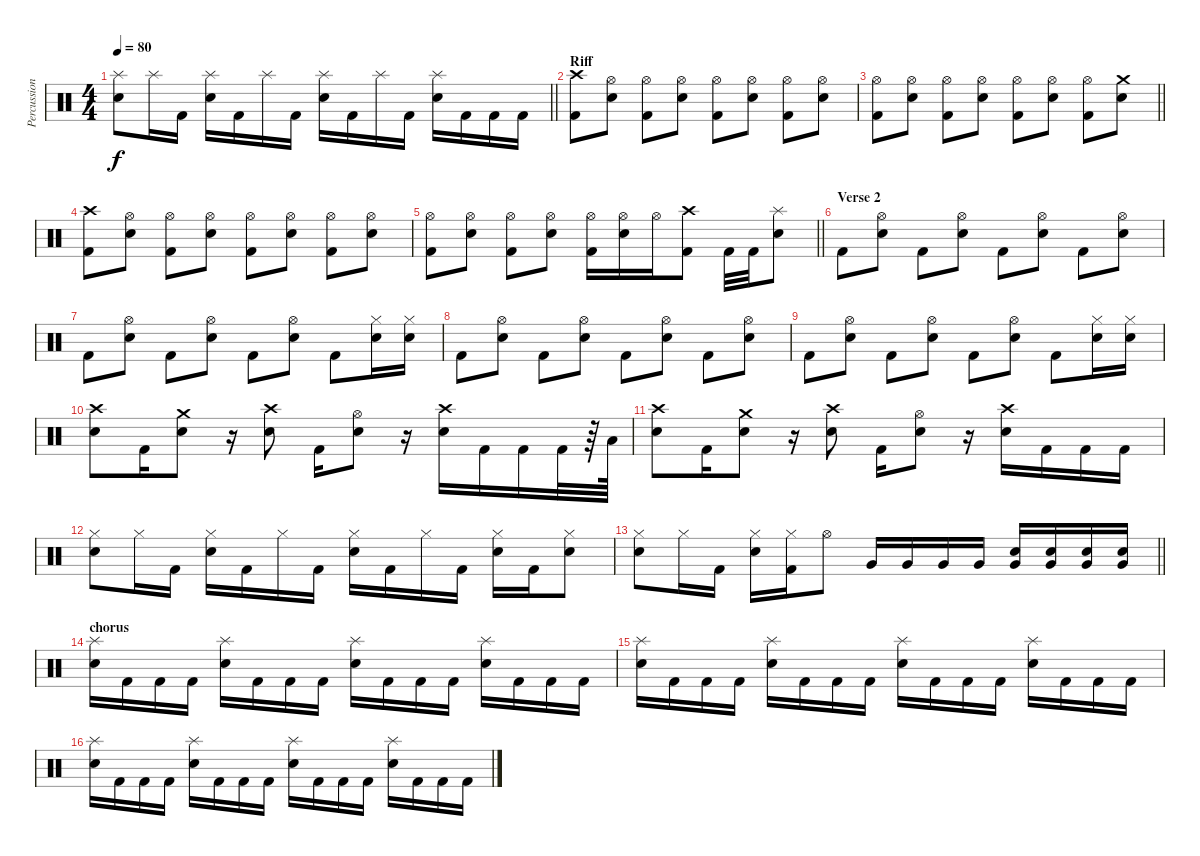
\track ("Percussion" "Percussion") {instrument percussion}
\staff {score}
\articulation defaults
\ts (4 4)
\tempo 80
\clef neutral
\barLineRight lightlight
\ks c
("Splash (hit)" "Snare (hit) 2").8{dy f} "Splash (hit)".16 "Kick (hit) 2".16 ("Splash (hit)" "Snare (hit) 2").16 "Kick (hit) 2".16 "Splash (hit)".16 "Kick (hit) 2".16 ("Splash (hit)" "Snare (hit) 2").16 "Kick (hit) 2".16 "Splash (hit)".16 "Kick (hit) 2".16 ("Splash (hit)" "Snare (hit) 2").16 "Kick (hit) 2".16 "Kick (hit) 2".16 "Kick (hit) 2".16 |
\section ("" "Riff")
("Crash high (hit)" "Kick (hit) 2").8 ("Hi-Hat (open)" "Snare (hit) 2").8 ("Hi-Hat (open)" "Kick (hit) 2").8 ("Hi-Hat (open)" "Snare (hit) 2").8 ("Hi-Hat (open)" "Kick (hit) 2").8 ("Hi-Hat (open)" "Snare (hit) 2").8 ("Hi-Hat (open)" "Kick (hit) 2").8 ("Hi-Hat (open)" "Snare (hit) 2").8 |
\barLineRight lightlight
("Hi-Hat (open)" "Kick (hit) 2").8 ("Hi-Hat (open)" "Snare (hit) 2").8 ("Hi-Hat (open)" "Kick (hit) 2").8 ("Hi-Hat (open)" "Snare (hit) 2").8 ("Hi-Hat (open)" "Kick (hit) 2").8 ("Hi-Hat (open)" "Snare (hit) 2").8 ("Hi-Hat (open)" "Kick (hit) 2").8 ("Crash medium (hit)" "Snare (hit) 2").8 |
\section ("" "")
("Crash high (hit)" "Kick (hit) 2").8 ("Hi-Hat (open)" "Snare (hit) 2").8 ("Hi-Hat (open)" "Kick (hit) 2").8 ("Hi-Hat (open)" "Snare (hit) 2").8 ("Hi-Hat (open)" "Kick (hit) 2").8 ("Hi-Hat (open)" "Snare (hit) 2").8 ("Hi-Hat (open)" "Kick (hit) 2").8 ("Hi-Hat (open)" "Snare (hit) 2").8 |
\barLineRight lightlight
("Hi-Hat (open)" "Kick (hit) 2").8 ("Hi-Hat (open)" "Snare (hit) 2").8 ("Hi-Hat (open)" "Kick (hit) 2").8 ("Hi-Hat (open)" "Snare (hit) 2").8 ("Hi-Hat (open)" "Kick (hit) 2").16 ("Hi-Hat (open)" "Snare (hit) 2").16 "Hi-Hat (open)".16 ("Crash high (hit)" "Kick (hit) 2").8 "Kick (hit) 2".32 "Kick (hit) 2".32 ("Splash (hit)" "Snare (hit) 2").8 |
\section ("" "Verse 2")
"Kick (hit) 2".8 ("Hi-Hat (open)" "Snare (hit) 2").8 "Kick (hit) 2".8 ("Hi-Hat (open)" "Snare (hit) 2").8 "Kick (hit) 2".8 ("Hi-Hat (open)" "Snare (hit) 2").8 "Kick (hit) 2".8 ("Hi-Hat (open)" "Snare (hit) 2").8 |
"Kick (hit) 2".8 ("Hi-Hat (open)" "Snare (hit) 2").8 "Kick (hit) 2".8 ("Hi-Hat (open)" "Snare (hit) 2").8 "Kick (hit) 2".8 ("Hi-Hat (open)" "Snare (hit) 2").8 "Kick (hit) 2".8 ("Hi-Hat (closed)" "Snare (hit) 2").16 ("Hi-Hat (closed)" "Snare (hit) 2").16 |
"Kick (hit) 2".8 ("Hi-Hat (open)" "Snare (hit) 2").8 "Kick (hit) 2".8 ("Hi-Hat (open)" "Snare (hit) 2").8 "Kick (hit) 2".8 ("Hi-Hat (open)" "Snare (hit) 2").8 "Kick (hit) 2".8 ("Hi-Hat (open)" "Snare (hit) 2").8 |
"Kick (hit) 2".8 ("Hi-Hat (open)" "Snare (hit) 2").8 "Kick (hit) 2".8 ("Hi-Hat (open)" "Snare (hit) 2").8 "Kick (hit) 2".8 ("Hi-Hat (open)" "Snare (hit) 2").8 "Kick (hit) 2".8 ("Hi-Hat (closed)" "Snare (hit) 2").16 ("Hi-Hat (closed)" "Snare (hit) 2").16 |
("Crash high (hit)" "Snare (hit) 2").8 "Kick (hit) 2".16 ("Crash medium (hit)" "Snare (hit) 2").8 r.16 ("Crash high (hit)" "Snare (hit) 2").8 "Kick (hit) 2".16 ("Hi-Hat (open)" "Snare (hit) 2").8 r.16 ("Crash high (hit)" "Snare (hit) 2").16 "Kick (hit) 2".16 "Kick (hit) 2".16 "Kick (hit) 2".32 r.64 "Low Floor Tom (hit)".64 |
("Crash high (hit)" "Snare (hit) 2").8 "Kick (hit) 2".16 ("Crash medium (hit)" "Snare (hit) 2").8 r.16 ("Crash high (hit)" "Snare (hit) 2").8 "Kick (hit) 2".16 ("Hi-Hat (open)" "Snare (hit) 2").8 r.16 ("Crash high (hit)" "Snare (hit) 2").16 "Kick (hit) 2".16 "Kick (hit) 2".16 "Kick (hit) 2".16 |
("Hi-Hat (closed)" "Snare (hit) 2").8 "Hi-Hat (closed)".16 "Kick (hit) 2".16 ("Hi-Hat (closed)" "Snare (hit) 2").16 "Kick (hit) 2".16 "Hi-Hat (closed)".16 "Kick (hit) 2".16 ("Hi-Hat (closed)" "Snare (hit) 2").16 "Kick (hit) 2".16 "Hi-Hat (closed)".16 "Kick (hit) 2".16 ("Hi-Hat (closed)" "Snare (hit) 2").16 "Kick (hit) 2".16 ("Hi-Hat (closed)" "Snare (hit) 2").8 |
\barLineRight lightlight
("Hi-Hat (closed)" "Snare (hit) 2").8 "Hi-Hat (closed)".16 "Kick (hit) 2".16 ("Hi-Hat (closed)" "Snare (hit) 2").16 ("Hi-Hat (closed)" "Kick (hit) 2").16 "Hi-Hat (open)".8 "Very Low Tom (hit)".16 "Very Low Tom (hit)".16 "Very Low Tom (hit)".16 "Very Low Tom (hit)".16 ("Snare (hit) 2" "Very Low Tom (hit)").16 ("Snare (hit) 2" "Very Low Tom (hit)").16 ("Snare (hit) 2" "Very Low Tom (hit)").16 ("Snare (hit) 2" "Very Low Tom (hit)").16 |
\section ("" "chorus")
("Splash (hit)" "Snare (hit) 2").16 "Kick (hit) 2".16 "Kick (hit) 2".16 "Kick (hit) 2".16 ("Splash (hit)" "Snare (hit) 2").16 "Kick (hit) 2".16 "Kick (hit) 2".16 "Kick (hit) 2".16 ("Splash (hit)" "Snare (hit) 2").16 "Kick (hit) 2".16 "Kick (hit) 2".16 "Kick (hit) 2".16 ("Splash (hit)" "Snare (hit) 2").16 "Kick (hit) 2".16 "Kick (hit) 2".16 "Kick (hit) 2".16 |
("Splash (hit)" "Snare (hit) 2").16 "Kick (hit) 2".16 "Kick (hit) 2".16 "Kick (hit) 2".16 ("Splash (hit)" "Snare (hit) 2").16 "Kick (hit) 2".16 "Kick (hit) 2".16 "Kick (hit) 2".16 ("Splash (hit)" "Snare (hit) 2").16 "Kick (hit) 2".16 "Kick (hit) 2".16 "Kick (hit) 2".16 ("Splash (hit)" "Snare (hit) 2").16 "Kick (hit) 2".16 "Kick (hit) 2".16 "Kick (hit) 2".16 |
("Splash (hit)" "Snare (hit) 2").16 "Kick (hit) 2".16 "Kick (hit) 2".16 "Kick (hit) 2".16 ("Splash (hit)" "Snare (hit) 2").16 "Kick (hit) 2".16 "Kick (hit) 2".16 "Kick (hit) 2".16 ("Splash (hit)" "Snare (hit) 2").16 "Kick (hit) 2".16 "Kick (hit) 2".16 "Kick (hit) 2".16 ("Splash (hit)" "Snare (hit) 2").16 "Kick (hit) 2".16 "Kick (hit) 2".16 "Kick (hit) 2".16
